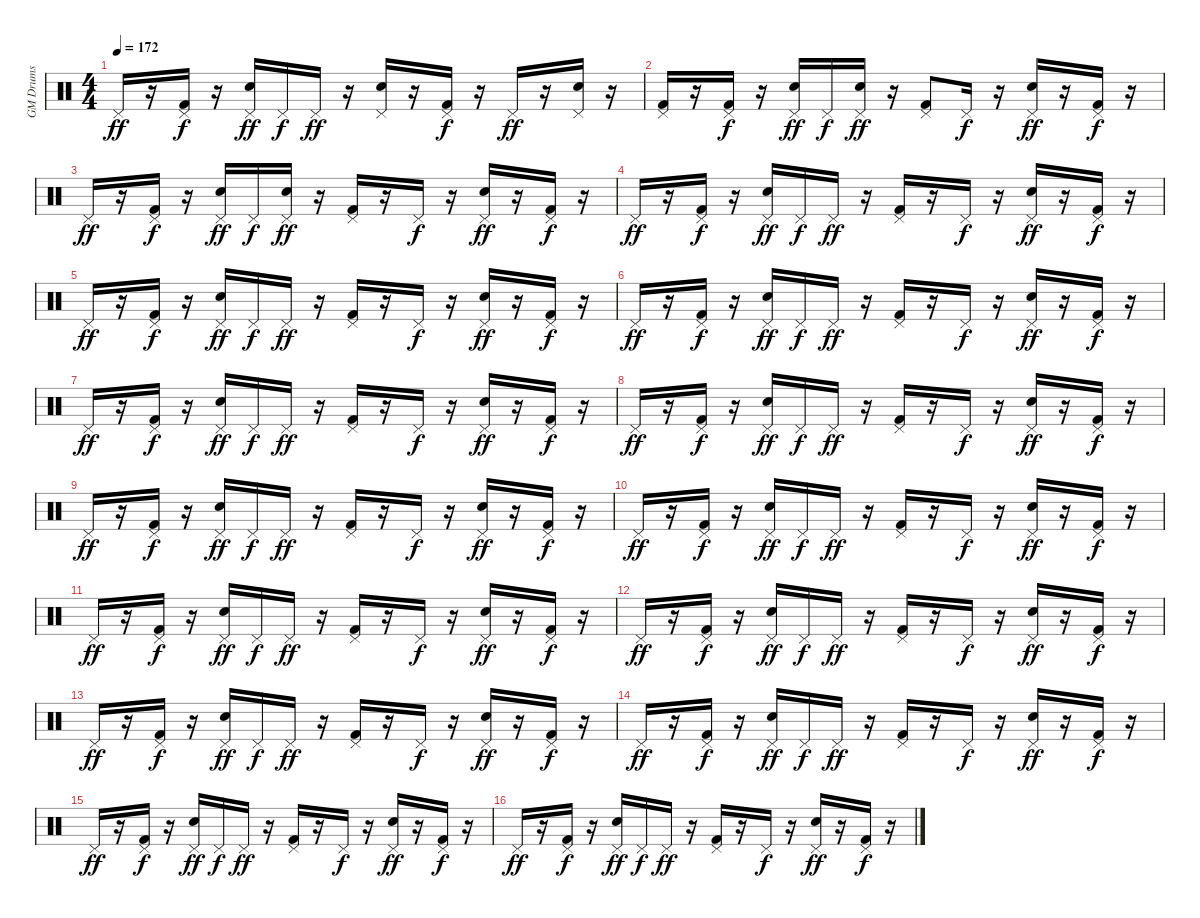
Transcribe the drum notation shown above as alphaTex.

\track ("GM Drums" "GM Drums") {instrument percussion}
\staff {score}
\articulation defaults
\ts (4 4)
\tempo 172
\clef neutral
\ks c "Pedal Hi-Hat (hit)".16{dy ff}
r.16 ("Kick (hit) 2" "Pedal Hi-Hat (hit)").16{dy f} r.16 ("Snare (hit) 2" "Pedal Hi-Hat (hit)").16{dy ff} "Pedal Hi-Hat (hit)".16{dy f} "Pedal Hi-Hat (hit)".16{dy ff} r.16 ("Snare (hit) 2" "Pedal Hi-Hat (hit)").16 r.16 ("Kick (hit) 2" "Pedal Hi-Hat (hit)").16{dy f} r.16 "Pedal Hi-Hat (hit)".16{dy ff} r.16 ("Snare (hit) 2" "Pedal Hi-Hat (hit)").16 r.16 |
("Kick (hit) 2" "Pedal Hi-Hat (hit)").16 r.16 ("Kick (hit) 2" "Pedal Hi-Hat (hit)").16{dy f} r.16 ("Snare (hit) 2" "Pedal Hi-Hat (hit)").16{dy ff} "Pedal Hi-Hat (hit)".16{dy f} ("Snare (hit) 2" "Pedal Hi-Hat (hit)").16{dy ff} r.16 ("Kick (hit) 2" "Pedal Hi-Hat (hit)").8 "Pedal Hi-Hat (hit)".16{dy f} r.16 ("Snare (hit) 2" "Pedal Hi-Hat (hit)").16{dy ff} r.16 ("Kick (hit) 2" "Pedal Hi-Hat (hit)").16{dy f} r.16 |
"Pedal Hi-Hat (hit)".16{dy ff} r.16 ("Kick (hit) 2" "Pedal Hi-Hat (hit)").16{dy f} r.16 ("Snare (hit) 2" "Pedal Hi-Hat (hit)").16{dy ff} "Pedal Hi-Hat (hit)".16{dy f} ("Snare (hit) 2" "Pedal Hi-Hat (hit)").16{dy ff} r.16 ("Kick (hit) 2" "Pedal Hi-Hat (hit)").16 r.16 "Pedal Hi-Hat (hit)".16{dy f} r.16 ("Snare (hit) 2" "Pedal Hi-Hat (hit)").16{dy ff} r.16 ("Kick (hit) 2" "Pedal Hi-Hat (hit)").16{dy f} r.16 |
"Pedal Hi-Hat (hit)".16{dy ff} r.16 ("Kick (hit) 2" "Pedal Hi-Hat (hit)").16{dy f} r.16 ("Snare (hit) 2" "Pedal Hi-Hat (hit)").16{dy ff} "Pedal Hi-Hat (hit)".16{dy f} "Pedal Hi-Hat (hit)".16{dy ff} r.16 ("Kick (hit) 2" "Pedal Hi-Hat (hit)").16 r.16 "Pedal Hi-Hat (hit)".16{dy f} r.16 ("Snare (hit) 2" "Pedal Hi-Hat (hit)").16{dy ff} r.16 ("Kick (hit) 2" "Pedal Hi-Hat (hit)").16{dy f} r.16 |
"Pedal Hi-Hat (hit)".16{dy ff} r.16 ("Kick (hit) 2" "Pedal Hi-Hat (hit)").16{dy f} r.16 ("Snare (hit) 2" "Pedal Hi-Hat (hit)").16{dy ff} "Pedal Hi-Hat (hit)".16{dy f} "Pedal Hi-Hat (hit)".16{dy ff} r.16 ("Kick (hit) 2" "Pedal Hi-Hat (hit)").16 r.16 "Pedal Hi-Hat (hit)".16{dy f} r.16 ("Snare (hit) 2" "Pedal Hi-Hat (hit)").16{dy ff} r.16 ("Kick (hit) 2" "Pedal Hi-Hat (hit)").16{dy f} r.16 |
"Pedal Hi-Hat (hit)".16{dy ff} r.16 ("Kick (hit) 2" "Pedal Hi-Hat (hit)").16{dy f} r.16 ("Snare (hit) 2" "Pedal Hi-Hat (hit)").16{dy ff} "Pedal Hi-Hat (hit)".16{dy f} "Pedal Hi-Hat (hit)".16{dy ff} r.16 ("Kick (hit) 2" "Pedal Hi-Hat (hit)").16 r.16 "Pedal Hi-Hat (hit)".16{dy f} r.16 ("Snare (hit) 2" "Pedal Hi-Hat (hit)").16{dy ff} r.16 ("Kick (hit) 2" "Pedal Hi-Hat (hit)").16{dy f} r.16 |
"Pedal Hi-Hat (hit)".16{dy ff} r.16 ("Kick (hit) 2" "Pedal Hi-Hat (hit)").16{dy f} r.16 ("Snare (hit) 2" "Pedal Hi-Hat (hit)").16{dy ff} "Pedal Hi-Hat (hit)".16{dy f} "Pedal Hi-Hat (hit)".16{dy ff} r.16 ("Kick (hit) 2" "Pedal Hi-Hat (hit)").16 r.16 "Pedal Hi-Hat (hit)".16{dy f} r.16 ("Snare (hit) 2" "Pedal Hi-Hat (hit)").16{dy ff} r.16 ("Kick (hit) 2" "Pedal Hi-Hat (hit)").16{dy f} r.16 |
"Pedal Hi-Hat (hit)".16{dy ff} r.16 ("Kick (hit) 2" "Pedal Hi-Hat (hit)").16{dy f} r.16 ("Snare (hit) 2" "Pedal Hi-Hat (hit)").16{dy ff} "Pedal Hi-Hat (hit)".16{dy f} "Pedal Hi-Hat (hit)".16{dy ff} r.16 ("Kick (hit) 2" "Pedal Hi-Hat (hit)").16 r.16 "Pedal Hi-Hat (hit)".16{dy f} r.16 ("Snare (hit) 2" "Pedal Hi-Hat (hit)").16{dy ff} r.16 ("Kick (hit) 2" "Pedal Hi-Hat (hit)").16{dy f} r.16 |
"Pedal Hi-Hat (hit)".16{dy ff} r.16 ("Kick (hit) 2" "Pedal Hi-Hat (hit)").16{dy f} r.16 ("Snare (hit) 2" "Pedal Hi-Hat (hit)").16{dy ff} "Pedal Hi-Hat (hit)".16{dy f} "Pedal Hi-Hat (hit)".16{dy ff} r.16 ("Kick (hit) 2" "Pedal Hi-Hat (hit)").16 r.16 "Pedal Hi-Hat (hit)".16{dy f} r.16 ("Snare (hit) 2" "Pedal Hi-Hat (hit)").16{dy ff} r.16 ("Kick (hit) 2" "Pedal Hi-Hat (hit)").16{dy f} r.16 |
"Pedal Hi-Hat (hit)".16{dy ff} r.16 ("Kick (hit) 2" "Pedal Hi-Hat (hit)").16{dy f} r.16 ("Snare (hit) 2" "Pedal Hi-Hat (hit)").16{dy ff} "Pedal Hi-Hat (hit)".16{dy f} "Pedal Hi-Hat (hit)".16{dy ff} r.16 ("Kick (hit) 2" "Pedal Hi-Hat (hit)").16 r.16 "Pedal Hi-Hat (hit)".16{dy f} r.16 ("Snare (hit) 2" "Pedal Hi-Hat (hit)").16{dy ff} r.16 ("Kick (hit) 2" "Pedal Hi-Hat (hit)").16{dy f} r.16 |
"Pedal Hi-Hat (hit)".16{dy ff} r.16 ("Kick (hit) 2" "Pedal Hi-Hat (hit)").16{dy f} r.16 ("Snare (hit) 2" "Pedal Hi-Hat (hit)").16{dy ff} "Pedal Hi-Hat (hit)".16{dy f} "Pedal Hi-Hat (hit)".16{dy ff} r.16 ("Kick (hit) 2" "Pedal Hi-Hat (hit)").16 r.16 "Pedal Hi-Hat (hit)".16{dy f} r.16 ("Snare (hit) 2" "Pedal Hi-Hat (hit)").16{dy ff} r.16 ("Kick (hit) 2" "Pedal Hi-Hat (hit)").16{dy f} r.16 |
"Pedal Hi-Hat (hit)".16{dy ff} r.16 ("Kick (hit) 2" "Pedal Hi-Hat (hit)").16{dy f} r.16 ("Snare (hit) 2" "Pedal Hi-Hat (hit)").16{dy ff} "Pedal Hi-Hat (hit)".16{dy f} "Pedal Hi-Hat (hit)".16{dy ff} r.16 ("Kick (hit) 2" "Pedal Hi-Hat (hit)").16 r.16 "Pedal Hi-Hat (hit)".16{dy f} r.16 ("Snare (hit) 2" "Pedal Hi-Hat (hit)").16{dy ff} r.16 ("Kick (hit) 2" "Pedal Hi-Hat (hit)").16{dy f} r.16 |
"Pedal Hi-Hat (hit)".16{dy ff} r.16 ("Kick (hit) 2" "Pedal Hi-Hat (hit)").16{dy f} r.16 ("Snare (hit) 2" "Pedal Hi-Hat (hit)").16{dy ff} "Pedal Hi-Hat (hit)".16{dy f} "Pedal Hi-Hat (hit)".16{dy ff} r.16 ("Kick (hit) 2" "Pedal Hi-Hat (hit)").16 r.16 "Pedal Hi-Hat (hit)".16{dy f} r.16 ("Snare (hit) 2" "Pedal Hi-Hat (hit)").16{dy ff} r.16 ("Kick (hit) 2" "Pedal Hi-Hat (hit)").16{dy f} r.16 |
"Pedal Hi-Hat (hit)".16{dy ff} r.16 ("Kick (hit) 2" "Pedal Hi-Hat (hit)").16{dy f} r.16 ("Snare (hit) 2" "Pedal Hi-Hat (hit)").16{dy ff} "Pedal Hi-Hat (hit)".16{dy f} "Pedal Hi-Hat (hit)".16{dy ff} r.16 ("Kick (hit) 2" "Pedal Hi-Hat (hit)").16 r.16 "Pedal Hi-Hat (hit)".16{dy f} r.16 ("Snare (hit) 2" "Pedal Hi-Hat (hit)").16{dy ff} r.16 ("Kick (hit) 2" "Pedal Hi-Hat (hit)").16{dy f} r.16 |
"Pedal Hi-Hat (hit)".16{dy ff} r.16 ("Kick (hit) 2" "Pedal Hi-Hat (hit)").16{dy f} r.16 ("Snare (hit) 2" "Pedal Hi-Hat (hit)").16{dy ff} "Pedal Hi-Hat (hit)".16{dy f} "Pedal Hi-Hat (hit)".16{dy ff} r.16 ("Kick (hit) 2" "Pedal Hi-Hat (hit)").16 r.16 "Pedal Hi-Hat (hit)".16{dy f} r.16 ("Snare (hit) 2" "Pedal Hi-Hat (hit)").16{dy ff} r.16 ("Kick (hit) 2" "Pedal Hi-Hat (hit)").16{dy f} r.16 |
"Pedal Hi-Hat (hit)".16{dy ff} r.16 ("Kick (hit) 2" "Pedal Hi-Hat (hit)").16{dy f} r.16 ("Snare (hit) 2" "Pedal Hi-Hat (hit)").16{dy ff} "Pedal Hi-Hat (hit)".16{dy f} "Pedal Hi-Hat (hit)".16{dy ff} r.16 ("Kick (hit) 2" "Pedal Hi-Hat (hit)").16 r.16 "Pedal Hi-Hat (hit)".16{dy f} r.16 ("Snare (hit) 2" "Pedal Hi-Hat (hit)").16{dy ff} r.16 ("Kick (hit) 2" "Pedal Hi-Hat (hit)").16{dy f} r.16
